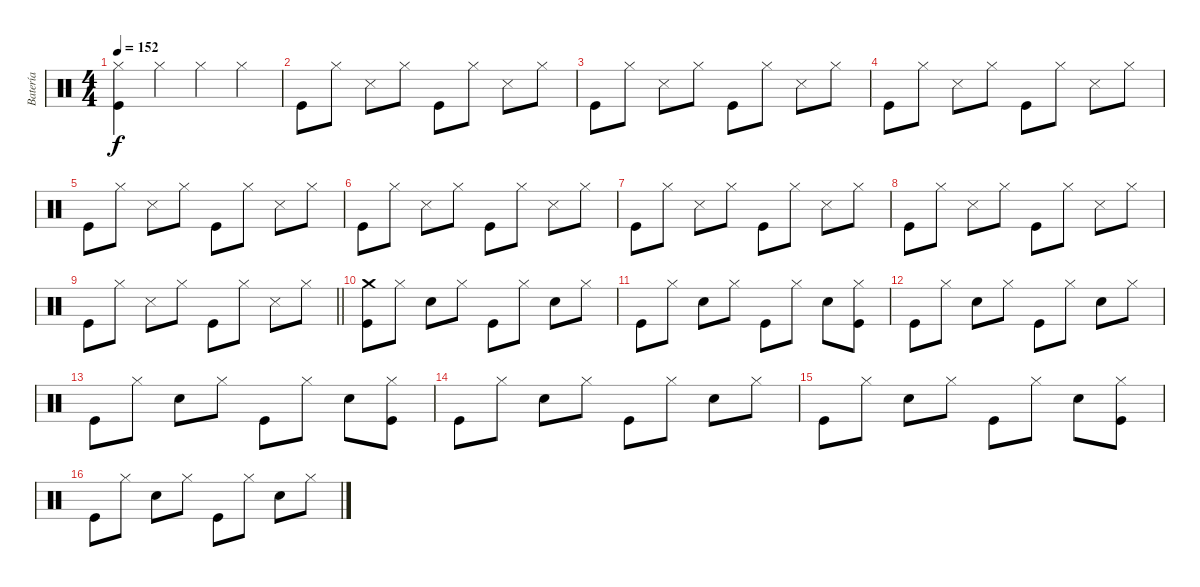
\track ("Batería" "Batería") {instrument percussion}
\staff {score}
\articulation defaults
\ts (4 4)
\tempo 152
\clef neutral
\ks c
("Kick (hit)" "Hi-Hat (closed)").4{dy f} "Hi-Hat (closed)".4 "Hi-Hat (closed)".4 "Hi-Hat (closed)".4 |
"Kick (hit)".8 "Hi-Hat (closed)".8 "Snare (side stick) 3".8 "Hi-Hat (closed)".8 "Kick (hit)".8 "Hi-Hat (closed)".8 "Snare (side stick) 3".8 "Hi-Hat (closed)".8 |
"Kick (hit)".8 "Hi-Hat (closed)".8 "Snare (side stick) 3".8 "Hi-Hat (closed)".8 "Kick (hit)".8 "Hi-Hat (closed)".8 "Snare (side stick) 3".8 "Hi-Hat (closed)".8 |
"Kick (hit)".8 "Hi-Hat (closed)".8 "Snare (side stick) 3".8 "Hi-Hat (closed)".8 "Kick (hit)".8 "Hi-Hat (closed)".8 "Snare (side stick) 3".8 "Hi-Hat (closed)".8 |
"Kick (hit)".8 "Hi-Hat (closed)".8 "Snare (side stick) 3".8 "Hi-Hat (closed)".8 "Kick (hit)".8 "Hi-Hat (closed)".8 "Snare (side stick) 3".8 "Hi-Hat (closed)".8 |
"Kick (hit)".8 "Hi-Hat (closed)".8 "Snare (side stick) 3".8 "Hi-Hat (closed)".8 "Kick (hit)".8 "Hi-Hat (closed)".8 "Snare (side stick) 3".8 "Hi-Hat (closed)".8 |
"Kick (hit)".8 "Hi-Hat (closed)".8 "Snare (side stick) 3".8 "Hi-Hat (closed)".8 "Kick (hit)".8 "Hi-Hat (closed)".8 "Snare (side stick) 3".8 "Hi-Hat (closed)".8 |
"Kick (hit)".8 "Hi-Hat (closed)".8 "Snare (side stick) 3".8 "Hi-Hat (closed)".8 "Kick (hit)".8 "Hi-Hat (closed)".8 "Snare (side stick) 3".8 "Hi-Hat (closed)".8 |
\barLineRight lightlight "Kick (hit)".8 "Hi-Hat (closed)".8 "Snare (side stick) 3".8 "Hi-Hat (closed)".8 "Kick (hit)".8 "Hi-Hat (closed)".8 "Snare (side stick) 3".8 "Hi-Hat (closed)".8
|
("Crash medium (hit)" "Kick (hit)").8 "Hi-Hat (closed)".8 "Snare (hit) 2".8 "Hi-Hat (closed)".8 "Kick (hit)".8 "Hi-Hat (closed)".8 "Snare (hit) 2".8 "Hi-Hat (closed)".8 |
"Kick (hit)".8 "Hi-Hat (closed)".8 "Snare (hit) 2".8 "Hi-Hat (closed)".8 "Kick (hit)".8 "Hi-Hat (closed)".8 "Snare (hit) 2".8 ("Kick (hit)" "Hi-Hat (closed)").8 |
"Kick (hit)".8 "Hi-Hat (closed)".8 "Snare (hit) 2".8 "Hi-Hat (closed)".8 "Kick (hit)".8 "Hi-Hat (closed)".8 "Snare (hit) 2".8 "Hi-Hat (closed)".8 |
"Kick (hit)".8 "Hi-Hat (closed)".8 "Snare (hit) 2".8 "Hi-Hat (closed)".8 "Kick (hit)".8 "Hi-Hat (closed)".8 "Snare (hit) 2".8 ("Kick (hit)" "Hi-Hat (closed)").8 |
"Kick (hit)".8 "Hi-Hat (closed)".8 "Snare (hit) 2".8 "Hi-Hat (closed)".8 "Kick (hit)".8 "Hi-Hat (closed)".8 "Snare (hit) 2".8 "Hi-Hat (closed)".8 |
"Kick (hit)".8 "Hi-Hat (closed)".8 "Snare (hit) 2".8 "Hi-Hat (closed)".8 "Kick (hit)".8 "Hi-Hat (closed)".8 "Snare (hit) 2".8 ("Kick (hit)" "Hi-Hat (closed)").8 |
"Kick (hit)".8 "Hi-Hat (closed)".8 "Snare (hit) 2".8 "Hi-Hat (closed)".8 "Kick (hit)".8 "Hi-Hat (closed)".8 "Snare (hit) 2".8 "Hi-Hat (closed)".8
